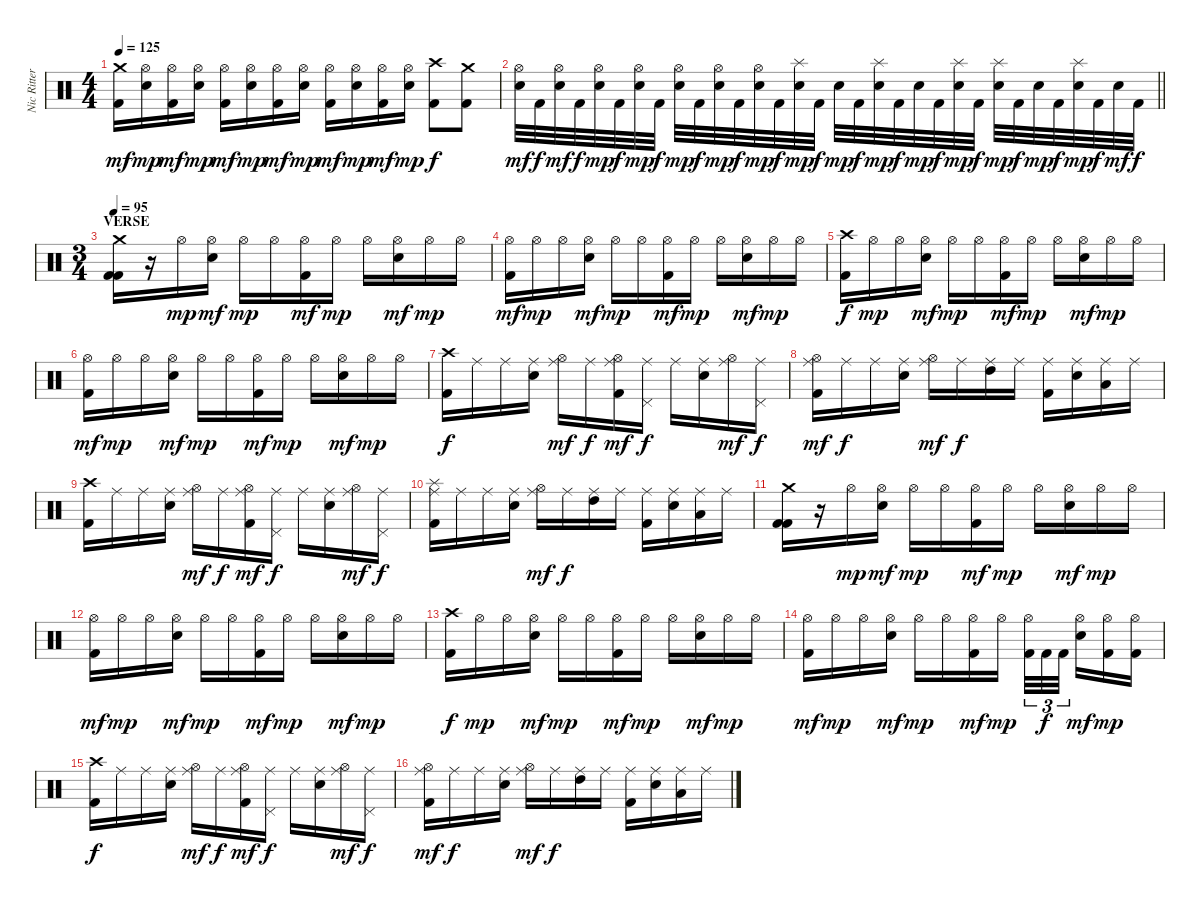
\track ("Nic Ritter" "Nic Ritter") {instrument percussion}
\staff {score}
\articulation defaults
\ts (4 4)
\tempo 125
\clef neutral
\ks c
("Crash medium (hit)" "Kick (hit) 2").16{dy mf} ("Hi-Hat (open)" "Electric Snare (hit)").16{dy mp} ("Hi-Hat (open)" "Kick (hit) 2").16{dy mf} ("Hi-Hat (open)" "Electric Snare (hit)").16{dy mp} ("Hi-Hat (open)" "Kick (hit) 2").16{dy mf} ("Hi-Hat (open)" "Electric Snare (hit)").16{dy mp} ("Hi-Hat (open)" "Kick (hit) 2").16{dy mf} ("Hi-Hat (open)" "Electric Snare (hit)").16{dy mp} ("Hi-Hat (open)" "Kick (hit) 2").16{dy mf} ("Hi-Hat (open)" "Electric Snare (hit)").16{dy mp} ("Hi-Hat (open)" "Kick (hit) 2").16{dy mf} ("Hi-Hat (open)" "Electric Snare (hit)").16{dy mp} ("Crash high (hit)" "Kick (hit) 2").8{dy f} ("Crash medium (hit)" "Kick (hit) 2").8 |
\barLineRight lightlight
("Hi-Hat (open)" "Electric Snare (hit)").32{dy mf} "Kick (hit) 2".32{dy f} ("Hi-Hat (open)" "Electric Snare (hit)").32{dy mf} "Kick (hit) 2".32{dy f} ("Hi-Hat (open)" "Electric Snare (hit)").32{dy mp} "Kick (hit) 2".32{dy f} ("Hi-Hat (open)" "Electric Snare (hit)").32{dy mp} "Kick (hit) 2".32{dy f} ("Hi-Hat (open)" "Electric Snare (hit)").32{dy mp} "Kick (hit) 2".32{dy f} ("Hi-Hat (open)" "Electric Snare (hit)").32{dy mp} "Kick (hit) 2".32{dy f} ("Hi-Hat (open)" "Electric Snare (hit)").32{dy mp} "Kick (hit) 2".32{dy f} ("Splash (hit)" "Electric Snare (hit)").32{dy mp} "Kick (hit) 2".32{dy f} "Electric Snare (hit)".32{dy mp} "Kick (hit) 2".32{dy f} ("Splash (hit)" "Electric Snare (hit)").32{dy mp} "Kick (hit) 2".32{dy f} "Electric Snare (hit)".32{dy mp} "Kick (hit) 2".32{dy f} ("Splash (hit)" "Electric Snare (hit)").32{dy mp} "Kick (hit) 2".32{dy f} ("Splash (hit)" "Electric Snare (hit)").32{dy mp} "Kick (hit) 2".32{dy f} "Electric Snare (hit)".32{dy mp} "Kick (hit) 2".32{dy f} ("Splash (hit)" "Electric Snare (hit)").32{dy mp} "Kick (hit) 2".32{dy f} "Electric Snare (hit)".32{dy mf} "Kick (hit) 2".32{dy f} |
\ts (3 4)
\section ("" "VERSE")
\tempo 95
("Crash medium (hit)" "Kick (hit) 2" "Kick (hit) 2").16 r.16 "Hi-Hat (open)".16{dy mp} ("Hi-Hat (open)" "Electric Snare (hit)").16{dy mf} "Hi-Hat (open)".16{dy mp} "Hi-Hat (open)".16 ("Hi-Hat (open)" "Kick (hit) 2").16{dy mf} "Hi-Hat (open)".16{dy mp} "Hi-Hat (open)".16 ("Hi-Hat (open)" "Electric Snare (hit)").16{dy mf} "Hi-Hat (open)".16{dy mp} "Hi-Hat (open)".16 |
("Hi-Hat (open)" "Kick (hit) 2").16{dy mf} "Hi-Hat (open)".16{dy mp} "Hi-Hat (open)".16 ("Hi-Hat (open)" "Electric Snare (hit)").16{dy mf} "Hi-Hat (open)".16{dy mp} "Hi-Hat (open)".16 ("Hi-Hat (open)" "Kick (hit) 2").16{dy mf} "Hi-Hat (open)".16{dy mp} "Hi-Hat (open)".16 ("Hi-Hat (open)" "Electric Snare (hit)").16{dy mf} "Hi-Hat (open)".16{dy mp} "Hi-Hat (open)".16 |
("Crash high (hit)" "Kick (hit) 2").16{dy f} "Hi-Hat (open)".16{dy mp} "Hi-Hat (open)".16 ("Hi-Hat (open)" "Electric Snare (hit)").16{dy mf} "Hi-Hat (open)".16{dy mp} "Hi-Hat (open)".16 ("Hi-Hat (open)" "Kick (hit) 2").16{dy mf} "Hi-Hat (open)".16{dy mp} "Hi-Hat (open)".16 ("Hi-Hat (open)" "Electric Snare (hit)").16{dy mf} "Hi-Hat (open)".16{dy mp} "Hi-Hat (open)".16 |
("Hi-Hat (open)" "Kick (hit) 2").16{dy mf} "Hi-Hat (open)".16{dy mp} "Hi-Hat (open)".16 ("Hi-Hat (open)" "Electric Snare (hit)").16{dy mf} "Hi-Hat (open)".16{dy mp} "Hi-Hat (open)".16 ("Hi-Hat (open)" "Kick (hit) 2").16{dy mf} "Hi-Hat (open)".16{dy mp} "Hi-Hat (open)".16 ("Hi-Hat (open)" "Electric Snare (hit)").16{dy mf} "Hi-Hat (open)".16{dy mp} "Hi-Hat (open)".16 |
("Crash high (hit)" "Kick (hit) 2").16{dy f} "Ride (middle)".16 "Ride (middle)".16 ("Ride (middle)" "Electric Snare (hit)").16 ("Hi-Hat (open)" "Ride (middle)").16{dy mf} "Ride (middle)".16{dy f} ("Hi-Hat (open)" "Ride (middle)" "Kick (hit) 2").16{dy mf} ("Pedal Hi-Hat (hit)" "Ride (middle)").16{dy f} "Ride (middle)".16 ("Ride (middle)" "Electric Snare (hit)").16 ("Hi-Hat (open)" "Ride (middle)").16{dy mf} ("Pedal Hi-Hat (hit)" "Ride (middle)").16{dy f} |
("Hi-Hat (open)" "Ride (middle)" "Kick (hit) 2").16{dy mf} "Ride (middle)".16{dy f} "Ride (middle)".16 ("Ride (middle)" "Electric Snare (hit)").16 ("Hi-Hat (open)" "Ride (middle)").16{dy mf} "Ride (middle)".16{dy f} ("High Tom (hit)" "Ride (middle)").16 "Ride (middle)".16 ("Ride (middle)" "Kick (hit) 2").16 ("Ride (middle)" "Electric Snare (hit)").16 ("Low Tom (hit)" "Ride (middle)").16 "Ride (middle)".16 |
("Crash high (hit)" "Kick (hit) 2").16 "Ride (middle)".16 "Ride (middle)".16 ("Ride (middle)" "Electric Snare (hit)").16 ("Hi-Hat (open)" "Ride (middle)").16{dy mf} "Ride (middle)".16{dy f} ("Hi-Hat (open)" "Ride (middle)" "Kick (hit) 2").16{dy mf} ("Pedal Hi-Hat (hit)" "Ride (middle)").16{dy f} "Ride (middle)".16 ("Ride (middle)" "Electric Snare (hit)").16 ("Hi-Hat (open)" "Ride (middle)").16{dy mf} ("Pedal Hi-Hat (hit)" "Ride (middle)").16{dy f} |
("Splash (hit)" "Ride (middle)" "Kick (hit) 2").16 "Ride (middle)".16 "Ride (middle)".16 ("Ride (middle)" "Electric Snare (hit)").16 ("Hi-Hat (open)" "Ride (middle)").16{dy mf} "Ride (middle)".16{dy f} ("High Tom (hit)" "Ride (middle)").16 "Ride (middle)".16 ("Ride (middle)" "Kick (hit) 2").16 ("Ride (middle)" "Electric Snare (hit)").16 ("Low Tom (hit)" "Ride (middle)").16 "Ride (middle)".16 |
("Crash medium (hit)" "Kick (hit) 2" "Kick (hit) 2").16 r.16 "Hi-Hat (open)".16{dy mp} ("Hi-Hat (open)" "Electric Snare (hit)").16{dy mf} "Hi-Hat (open)".16{dy mp} "Hi-Hat (open)".16 ("Hi-Hat (open)" "Kick (hit) 2").16{dy mf} "Hi-Hat (open)".16{dy mp} "Hi-Hat (open)".16 ("Hi-Hat (open)" "Electric Snare (hit)").16{dy mf} "Hi-Hat (open)".16{dy mp} "Hi-Hat (open)".16 |
("Hi-Hat (open)" "Kick (hit) 2").16{dy mf} "Hi-Hat (open)".16{dy mp} "Hi-Hat (open)".16 ("Hi-Hat (open)" "Electric Snare (hit)").16{dy mf} "Hi-Hat (open)".16{dy mp} "Hi-Hat (open)".16 ("Hi-Hat (open)" "Kick (hit) 2").16{dy mf} "Hi-Hat (open)".16{dy mp} "Hi-Hat (open)".16 ("Hi-Hat (open)" "Electric Snare (hit)").16{dy mf} "Hi-Hat (open)".16{dy mp} "Hi-Hat (open)".16 |
("Crash high (hit)" "Kick (hit) 2").16{dy f} "Hi-Hat (open)".16{dy mp} "Hi-Hat (open)".16 ("Hi-Hat (open)" "Electric Snare (hit)").16{dy mf} "Hi-Hat (open)".16{dy mp} "Hi-Hat (open)".16 ("Hi-Hat (open)" "Kick (hit) 2").16{dy mf} "Hi-Hat (open)".16{dy mp} "Hi-Hat (open)".16 ("Hi-Hat (open)" "Electric Snare (hit)").16{dy mf} "Hi-Hat (open)".16{dy mp} "Hi-Hat (open)".16 |
("Hi-Hat (open)" "Kick (hit) 2").16{dy mf} "Hi-Hat (open)".16{dy mp} "Hi-Hat (open)".16 ("Hi-Hat (open)" "Electric Snare (hit)").16{dy mf} "Hi-Hat (open)".16{dy mp} "Hi-Hat (open)".16 ("Hi-Hat (open)" "Kick (hit) 2").16{dy mf} "Hi-Hat (open)".16{dy mp} ("Hi-Hat (open)" "Kick (hit) 2").32{tu (3 2)} "Kick (hit) 2".32{tu (3 2) dy f} "Kick (hit) 2".32{tu (3 2) beam splitsecondary} ("Hi-Hat (open)" "Electric Snare (hit)").16{dy mf} ("Hi-Hat (open)" "Kick (hit) 2").16{dy mp} ("Hi-Hat (open)" "Kick (hit) 2").16 |
("Crash high (hit)" "Kick (hit) 2").16{dy f} "Ride (middle)".16 "Ride (middle)".16 ("Ride (middle)" "Electric Snare (hit)").16 ("Hi-Hat (open)" "Ride (middle)").16{dy mf} "Ride (middle)".16{dy f} ("Hi-Hat (open)" "Ride (middle)" "Kick (hit) 2").16{dy mf} ("Pedal Hi-Hat (hit)" "Ride (middle)").16{dy f} "Ride (middle)".16 ("Ride (middle)" "Electric Snare (hit)").16 ("Hi-Hat (open)" "Ride (middle)").16{dy mf} ("Pedal Hi-Hat (hit)" "Ride (middle)").16{dy f} |
("Hi-Hat (open)" "Ride (middle)" "Kick (hit) 2").16{dy mf} "Ride (middle)".16{dy f} "Ride (middle)".16 ("Ride (middle)" "Electric Snare (hit)").16 ("Hi-Hat (open)" "Ride (middle)").16{dy mf} "Ride (middle)".16{dy f} ("High Tom (hit)" "Ride (middle)").16 "Ride (middle)".16 ("Ride (middle)" "Kick (hit) 2").16 ("Ride (middle)" "Electric Snare (hit)").16 ("Low Tom (hit)" "Ride (middle)").16 "Ride (middle)".16
